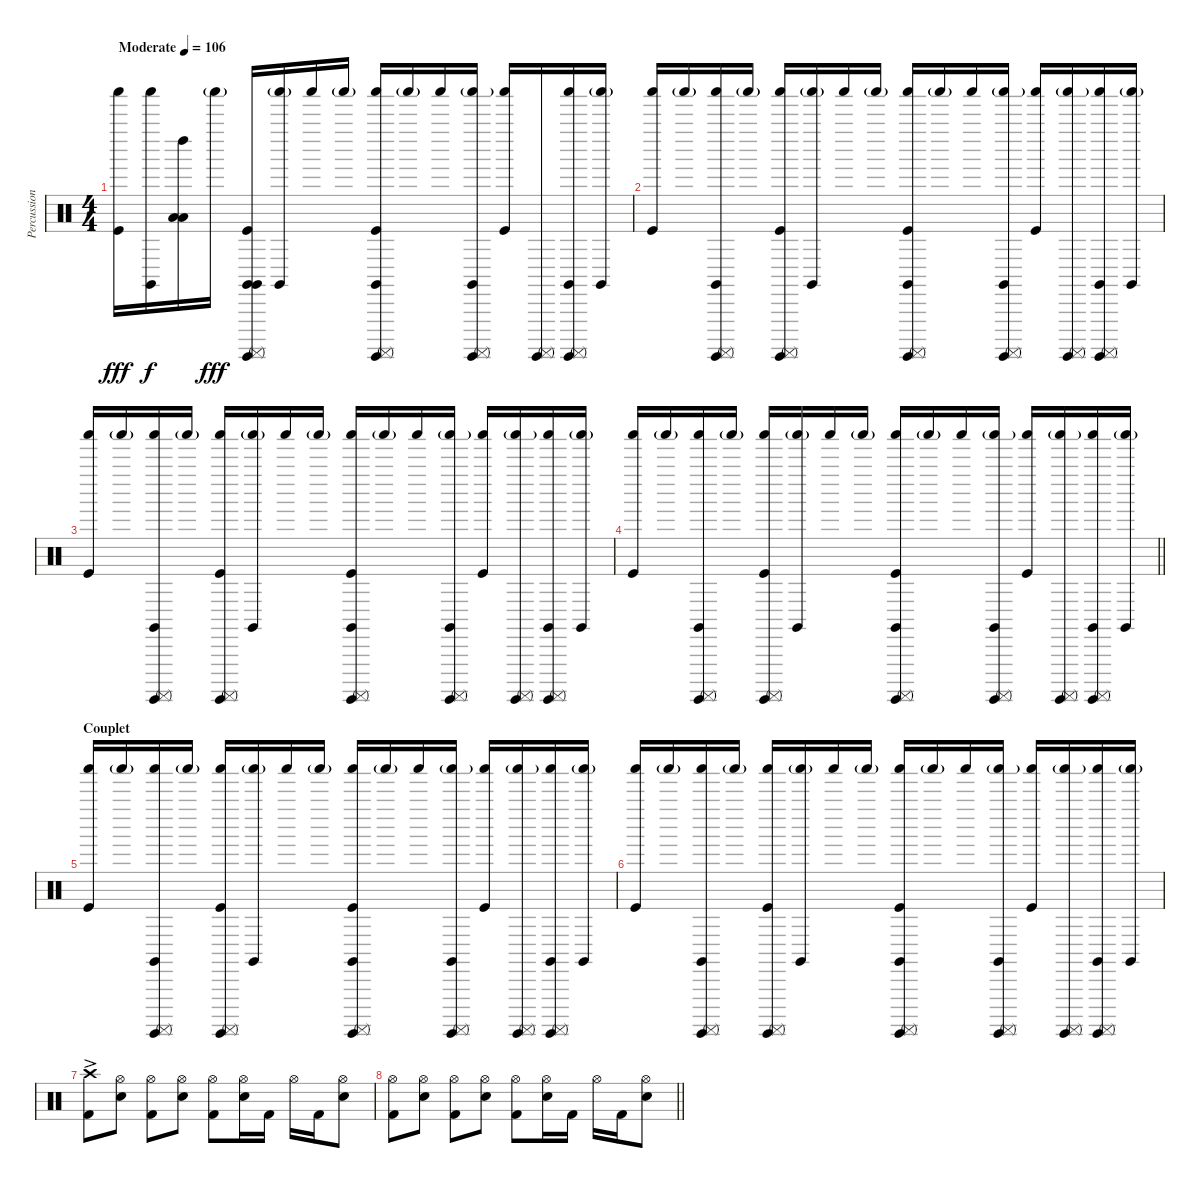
\track ("Percussion 1" "Percussion") {instrument percussion}
\staff {score}
\articulation defaults
\ts (4 4)
\tempo (106 "Moderate")
\clef neutral
\ks c
("Shaker (hit)" "Kick (hit)").16{dy fff} ("Shaker (hit)" "Claves (hit)").16{dy f} ("Left Maraca (hit)" "Low Floor Tom (hit)" "Low Floor Tom (hit)").16 "Shaker (hit)"{g}.16{dy fff} ("Kick (hit)" "Claves (hit)" "Surdo (hit)" "Surdo (mute)" "Claves (hit)").16 ("Shaker (hit)"{g} "Claves (hit)").16 "Shaker (hit)".16 "Shaker (hit)"{g}.16 ("Shaker (hit)" "Kick (hit)" "Surdo (hit)" "Surdo (mute)" "Claves (hit)").16 "Shaker (hit)"{g}.16 "Shaker (hit)".16 ("Shaker (hit)"{g} "Claves (hit)" "Surdo (hit)" "Surdo (mute)").16 ("Shaker (hit)" "Kick (hit)").16 ("Surdo (hit)" "Surdo (mute)").16 ("Shaker (hit)" "Claves (hit)" "Surdo (hit)" "Surdo (mute)").16 ("Shaker (hit)"{g} "Claves (hit)").16 |
("Shaker (hit)" "Kick (hit)").16 "Shaker (hit)"{g}.16 ("Shaker (hit)" "Claves (hit)" "Surdo (hit)" "Surdo (mute)").16 "Shaker (hit)"{g}.16 ("Shaker (hit)" "Kick (hit)" "Surdo (hit)" "Surdo (mute)").16 ("Shaker (hit)"{g} "Claves (hit)").16 "Shaker (hit)".16 "Shaker (hit)"{g}.16 ("Shaker (hit)" "Kick (hit)" "Surdo (hit)" "Surdo (mute)" "Claves (hit)").16 "Shaker (hit)"{g}.16 "Shaker (hit)".16 ("Shaker (hit)"{g} "Claves (hit)" "Surdo (hit)" "Surdo (mute)").16 ("Shaker (hit)" "Kick (hit)").16 ("Shaker (hit)"{g} "Surdo (hit)" "Surdo (mute)").16 ("Shaker (hit)" "Claves (hit)" "Surdo (hit)" "Surdo (mute)").16 ("Shaker (hit)"{g} "Claves (hit)").16 |
("Shaker (hit)" "Kick (hit)").16 "Shaker (hit)"{g}.16 ("Shaker (hit)" "Claves (hit)" "Surdo (hit)" "Surdo (mute)").16 "Shaker (hit)"{g}.16 ("Shaker (hit)" "Kick (hit)" "Surdo (hit)" "Surdo (mute)").16 ("Shaker (hit)"{g} "Claves (hit)").16 "Shaker (hit)".16 "Shaker (hit)"{g}.16 ("Shaker (hit)" "Kick (hit)" "Surdo (hit)" "Surdo (mute)" "Claves (hit)").16 "Shaker (hit)"{g}.16 "Shaker (hit)".16 ("Shaker (hit)"{g} "Claves (hit)" "Surdo (hit)" "Surdo (mute)").16 ("Shaker (hit)" "Kick (hit)").16 ("Shaker (hit)"{g} "Surdo (hit)" "Surdo (mute)").16 ("Shaker (hit)" "Claves (hit)" "Surdo (hit)" "Surdo (mute)").16 ("Shaker (hit)"{g} "Claves (hit)").16 |
\barLineRight lightlight
("Shaker (hit)" "Kick (hit)").16 "Shaker (hit)"{g}.16 ("Shaker (hit)" "Claves (hit)" "Surdo (hit)" "Surdo (mute)").16 "Shaker (hit)"{g}.16 ("Shaker (hit)" "Kick (hit)" "Surdo (hit)" "Surdo (mute)").16 ("Shaker (hit)"{g} "Claves (hit)").16 "Shaker (hit)".16 "Shaker (hit)"{g}.16 ("Shaker (hit)" "Kick (hit)" "Surdo (hit)" "Surdo (mute)" "Claves (hit)").16 "Shaker (hit)"{g}.16 "Shaker (hit)".16 ("Shaker (hit)"{g} "Claves (hit)" "Surdo (hit)" "Surdo (mute)").16 ("Shaker (hit)" "Kick (hit)").16 ("Shaker (hit)"{g} "Surdo (hit)" "Surdo (mute)").16 ("Shaker (hit)" "Claves (hit)" "Surdo (hit)" "Surdo (mute)").16 ("Shaker (hit)"{g} "Claves (hit)").16 |
\section ("" "Couplet")
("Shaker (hit)" "Kick (hit)").16 "Shaker (hit)"{g}.16 ("Shaker (hit)" "Claves (hit)" "Surdo (hit)" "Surdo (mute)").16 "Shaker (hit)"{g}.16 ("Shaker (hit)" "Kick (hit)" "Surdo (hit)" "Surdo (mute)").16 ("Shaker (hit)"{g} "Claves (hit)").16 "Shaker (hit)".16 "Shaker (hit)"{g}.16 ("Shaker (hit)" "Kick (hit)" "Surdo (hit)" "Surdo (mute)" "Claves (hit)").16 "Shaker (hit)"{g}.16 "Shaker (hit)".16 ("Shaker (hit)"{g} "Claves (hit)" "Surdo (hit)" "Surdo (mute)").16 ("Shaker (hit)" "Kick (hit)").16 ("Shaker (hit)"{g} "Surdo (hit)" "Surdo (mute)").16 ("Shaker (hit)" "Claves (hit)" "Surdo (hit)" "Surdo (mute)").16 ("Shaker (hit)"{g} "Claves (hit)").16 |
("Shaker (hit)" "Kick (hit)").16 "Shaker (hit)"{g}.16 ("Shaker (hit)" "Claves (hit)" "Surdo (hit)" "Surdo (mute)").16 "Shaker (hit)"{g}.16 ("Shaker (hit)" "Kick (hit)" "Surdo (hit)" "Surdo (mute)").16 ("Shaker (hit)"{g} "Claves (hit)").16 "Shaker (hit)".16 "Shaker (hit)"{g}.16 ("Shaker (hit)" "Kick (hit)" "Surdo (hit)" "Surdo (mute)" "Claves (hit)").16 "Shaker (hit)"{g}.16 "Shaker (hit)".16 ("Shaker (hit)"{g} "Claves (hit)" "Surdo (hit)" "Surdo (mute)").16 ("Shaker (hit)" "Kick (hit)").16 ("Shaker (hit)"{g} "Surdo (hit)" "Surdo (mute)").16 ("Shaker (hit)" "Claves (hit)" "Surdo (hit)" "Surdo (mute)").16 ("Shaker (hit)"{g} "Claves (hit)").16 |
("Crash high (hit)"{ac} "Kick (hit) 2").8 ("Hi-Hat (open)" "Electric Snare (hit)").8 ("Hi-Hat (open)" "Kick (hit) 2").8 ("Hi-Hat (open)" "Electric Snare (hit)").8 ("Hi-Hat (open)" "Kick (hit) 2").8 ("Hi-Hat (open)" "Electric Snare (hit)").16 "Kick (hit) 2".16 "Hi-Hat (open)".16 "Kick (hit) 2".16 ("Hi-Hat (open)" "Electric Snare (hit)").8 |
\barLineRight lightlight
("Hi-Hat (open)" "Kick (hit) 2").8 ("Hi-Hat (open)" "Electric Snare (hit)").8 ("Hi-Hat (open)" "Kick (hit) 2").8 ("Hi-Hat (open)" "Electric Snare (hit)").8 ("Hi-Hat (open)" "Kick (hit) 2").8 ("Hi-Hat (open)" "Electric Snare (hit)").16 "Kick (hit) 2".16 "Hi-Hat (open)".16 "Kick (hit) 2".16 ("Hi-Hat (open)" "Electric Snare (hit)").8
